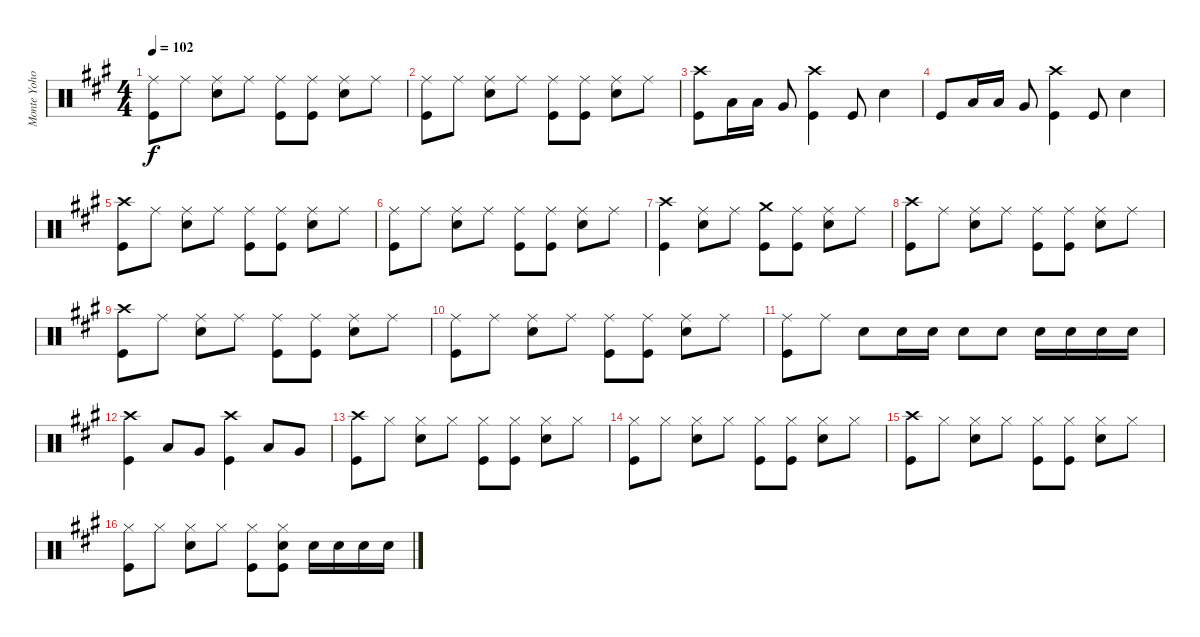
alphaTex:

\track ("Monte Yoho Drums" "Monte Yoho") {instrument percussion}
\staff {score}
\articulation defaults
\ts (4 4)
\tempo 102
\clef neutral
\ks a
("Ride (middle)" "Kick (hit)").8{dy f} "Ride (middle)".8 ("Ride (middle)" "Snare (hit) 2").8 "Ride (middle)".8 ("Ride (middle)" "Kick (hit)").8 ("Ride (middle)" "Kick (hit)").8 ("Ride (middle)" "Snare (hit) 2").8 "Ride (middle)".8 |
("Ride (middle)" "Kick (hit)").8 "Ride (middle)".8 ("Ride (middle)" "Snare (hit) 2").8 "Ride (middle)".8 ("Ride (middle)" "Kick (hit)").8 ("Ride (middle)" "Kick (hit)").8 ("Ride (middle)" "Snare (hit) 2").8 "Ride (middle)".8 |
("Crash high (hit)" "Kick (hit)").8 "Low Tom (hit)".16 "Low Tom (hit)".16 "Very Low Tom (hit)".8 ("Crash high (hit)" "Kick (hit)").4 "Kick (hit)".8 "Snare (hit) 2".4 |
"Kick (hit)".8 "Low Tom (hit)".16 "Low Tom (hit)".16 "Very Low Tom (hit)".8 ("Crash high (hit)" "Kick (hit)").4 "Kick (hit)".8 "Snare (hit) 2".4 |
("Crash high (hit)" "Kick (hit)").8 "Ride (middle)".8 ("Ride (middle)" "Snare (hit) 2").8 "Ride (middle)".8 ("Ride (middle)" "Kick (hit)").8 ("Ride (middle)" "Kick (hit)").8 ("Ride (middle)" "Snare (hit) 2").8 "Ride (middle)".8 |
("Ride (middle)" "Kick (hit)").8 "Ride (middle)".8 ("Ride (middle)" "Snare (hit) 2").8 "Ride (middle)".8 ("Ride (middle)" "Kick (hit)").8 ("Ride (middle)" "Kick (hit)").8 ("Ride (middle)" "Snare (hit) 2").8 "Ride (middle)".8 |
("Crash high (hit)" "Kick (hit)").4 ("Ride (middle)" "Snare (hit) 2").8 "Ride (middle)".8 ("Crash medium (hit)" "Kick (hit)").8 ("Ride (middle)" "Kick (hit)").8 ("Ride (middle)" "Snare (hit) 2").8 "Ride (middle)".8 |
("Crash high (hit)" "Kick (hit)").8 "Ride (middle)".8 ("Ride (middle)" "Snare (hit) 2").8 "Ride (middle)".8 ("Ride (middle)" "Kick (hit)").8 ("Ride (middle)" "Kick (hit)").8 ("Ride (middle)" "Snare (hit) 2").8 "Ride (middle)".8 |
("Crash high (hit)" "Kick (hit)").8 "Ride (middle)".8 ("Ride (middle)" "Snare (hit) 2").8 "Ride (middle)".8 ("Ride (middle)" "Kick (hit)").8 ("Ride (middle)" "Kick (hit)").8 ("Ride (middle)" "Snare (hit) 2").8 "Ride (middle)".8 |
("Ride (middle)" "Kick (hit)").8 "Ride (middle)".8 ("Ride (middle)" "Snare (hit) 2").8 "Ride (middle)".8 ("Ride (middle)" "Kick (hit)").8 ("Ride (middle)" "Kick (hit)").8 ("Ride (middle)" "Snare (hit) 2").8 "Ride (middle)".8 |
("Ride (middle)" "Kick (hit)").8 "Ride (middle)".8 "Snare (hit) 2".8 "Snare (hit) 2".16 "Snare (hit) 2".16 "Snare (hit) 2".8 "Snare (hit) 2".8 "Snare (hit) 2".16 "Snare (hit) 2".16 "Snare (hit) 2".16 "Snare (hit) 2".16 |
("Crash high (hit)" "Kick (hit)").4 "Low Tom (hit)".8 "Very Low Tom (hit)".8 ("Crash high (hit)" "Kick (hit)").4 "Low Tom (hit)".8 "Very Low Tom (hit)".8 |
("Crash high (hit)" "Kick (hit)").8 "Hi-Hat (closed)".8 ("Hi-Hat (closed)" "Snare (hit) 2").8 "Hi-Hat (closed)".8 ("Hi-Hat (closed)" "Kick (hit)").8 ("Hi-Hat (closed)" "Kick (hit)").8 ("Hi-Hat (closed)" "Snare (hit) 2").8 "Hi-Hat (closed)".8 |
("Hi-Hat (closed)" "Kick (hit)").8 "Hi-Hat (closed)".8 ("Hi-Hat (closed)" "Snare (hit) 2").8 "Hi-Hat (closed)".8 ("Hi-Hat (closed)" "Kick (hit)").8 ("Hi-Hat (closed)" "Kick (hit)").8 ("Hi-Hat (closed)" "Snare (hit) 2").8 "Hi-Hat (closed)".8 |
("Crash high (hit)" "Kick (hit)").8 "Hi-Hat (closed)".8 ("Hi-Hat (closed)" "Snare (hit) 2").8 "Hi-Hat (closed)".8 ("Hi-Hat (closed)" "Kick (hit)").8 ("Hi-Hat (closed)" "Kick (hit)").8 ("Hi-Hat (closed)" "Snare (hit) 2").8 "Hi-Hat (closed)".8 |
("Hi-Hat (closed)" "Kick (hit)").8 "Hi-Hat (closed)".8 ("Hi-Hat (closed)" "Snare (hit) 2").8 "Hi-Hat (closed)".8 ("Hi-Hat (closed)" "Kick (hit)").8 ("Hi-Hat (closed)" "Snare (hit) 2" "Kick (hit)").8 "Snare (hit) 2".16 "Snare (hit) 2".16 "Snare (hit) 2".16 "Snare (hit) 2".16
